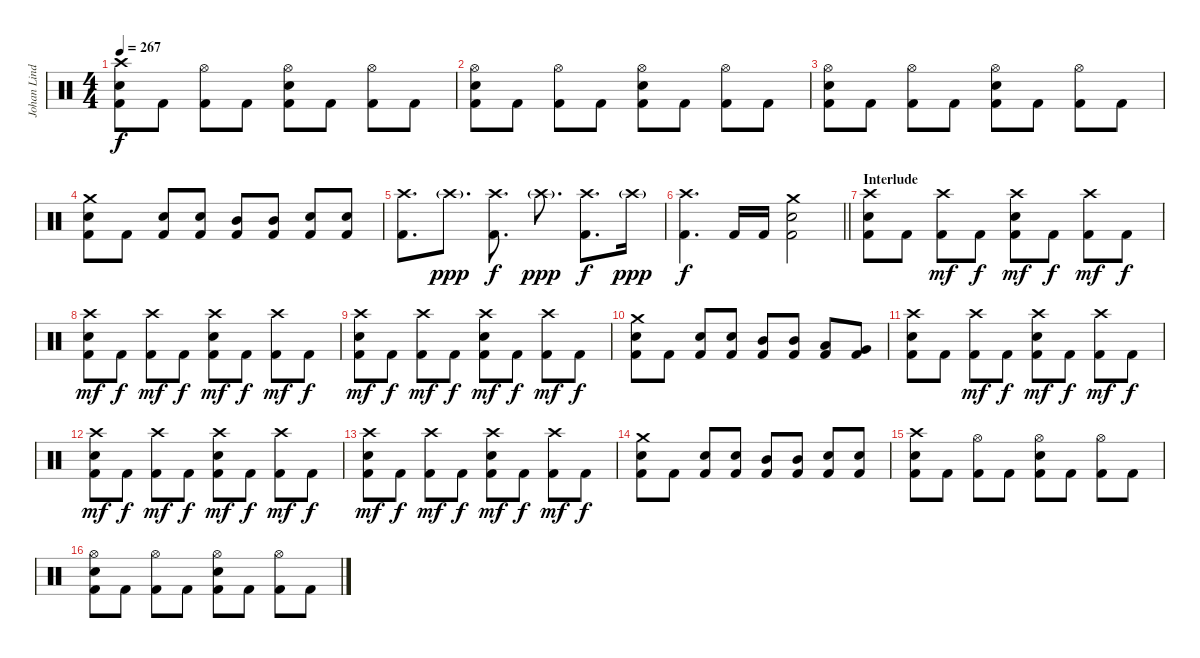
\track ("Johan Lindstrand" "Johan Lind") {instrument percussion}
\staff {score}
\articulation defaults
\ts (4 4)
\tempo 267
\clef neutral
\ks c
("Crash high (hit)" "Electric Snare (hit)" "Kick (hit) 2").8{dy f} "Kick (hit) 2".8 ("Hi-Hat (open)" "Kick (hit) 2").8 "Kick (hit) 2".8 ("Hi-Hat (open)" "Electric Snare (hit)" "Kick (hit) 2").8 "Kick (hit) 2".8 ("Hi-Hat (open)" "Kick (hit) 2").8 "Kick (hit) 2".8 |
("Hi-Hat (open)" "Electric Snare (hit)" "Kick (hit) 2").8 "Kick (hit) 2".8 ("Hi-Hat (open)" "Kick (hit) 2").8 "Kick (hit) 2".8 ("Hi-Hat (open)" "Electric Snare (hit)" "Kick (hit) 2").8 "Kick (hit) 2".8 ("Hi-Hat (open)" "Kick (hit) 2").8 "Kick (hit) 2".8 |
("Hi-Hat (open)" "Electric Snare (hit)" "Kick (hit) 2").8 "Kick (hit) 2".8 ("Hi-Hat (open)" "Kick (hit) 2").8 "Kick (hit) 2".8 ("Hi-Hat (open)" "Electric Snare (hit)" "Kick (hit) 2").8 "Kick (hit) 2".8 ("Hi-Hat (open)" "Kick (hit) 2").8 "Kick (hit) 2".8 |
("Crash medium (hit)" "Electric Snare (hit)" "Kick (hit) 2").8 "Kick (hit) 2".8 ("Electric Snare (hit)" "Kick (hit) 2").8 ("Electric Snare (hit)" "Kick (hit) 2").8 ("Mid Tom (hit)" "Kick (hit) 2").8 ("Mid Tom (hit)" "Kick (hit) 2").8 ("Electric Snare (hit)" "Kick (hit) 2").8 ("Electric Snare (hit)" "Kick (hit) 2").8 |
("Crash high (hit)" "Kick (hit) 2").8{d} "Crash high (hit)"{g}.8{d dy ppp} ("Crash high (hit)" "Kick (hit) 2").8{d dy f} "Crash high (hit)"{g}.8{d dy ppp} ("Crash high (hit)" "Kick (hit) 2").8{d dy f} "Crash high (hit)"{g}.16{dy ppp} |
\barLineRight lightlight
("Crash high (hit)" "Kick (hit) 2").4{d dy f} "Kick (hit) 2".16 "Kick (hit) 2".16 ("Crash medium (hit)" "Electric Snare (hit)" "Kick (hit) 2").2 |
\section ("" "Interlude")
("Crash high (hit)" "Electric Snare (hit)" "Kick (hit) 2").8 "Kick (hit) 2".8 ("Crash high (hit)" "Kick (hit) 2").8{dy mf} "Kick (hit) 2".8{dy f} ("Crash high (hit)" "Electric Snare (hit)" "Kick (hit) 2").8{dy mf} "Kick (hit) 2".8{dy f} ("Crash high (hit)" "Kick (hit) 2").8{dy mf} "Kick (hit) 2".8{dy f} |
("Crash high (hit)" "Electric Snare (hit)" "Kick (hit) 2").8{dy mf} "Kick (hit) 2".8{dy f} ("Crash high (hit)" "Kick (hit) 2").8{dy mf} "Kick (hit) 2".8{dy f} ("Crash high (hit)" "Electric Snare (hit)" "Kick (hit) 2").8{dy mf} "Kick (hit) 2".8{dy f} ("Crash high (hit)" "Kick (hit) 2").8{dy mf} "Kick (hit) 2".8{dy f} |
("Crash high (hit)" "Electric Snare (hit)" "Kick (hit) 2").8{dy mf} "Kick (hit) 2".8{dy f} ("Crash high (hit)" "Kick (hit) 2").8{dy mf} "Kick (hit) 2".8{dy f} ("Crash high (hit)" "Electric Snare (hit)" "Kick (hit) 2").8{dy mf} "Kick (hit) 2".8{dy f} ("Crash high (hit)" "Kick (hit) 2").8{dy mf} "Kick (hit) 2".8{dy f} |
("Crash medium (hit)" "Electric Snare (hit)" "Kick (hit) 2").8 "Kick (hit) 2".8 ("Electric Snare (hit)" "Kick (hit) 2").8 ("Electric Snare (hit)" "Kick (hit) 2").8 ("Mid Tom (hit)" "Kick (hit) 2").8 ("Mid Tom (hit)" "Kick (hit) 2").8 ("Low Tom (hit)" "Kick (hit) 2").8 ("Very Low Tom (hit)" "Kick (hit) 2").8 |
("Crash high (hit)" "Electric Snare (hit)" "Kick (hit) 2").8 "Kick (hit) 2".8 ("Crash high (hit)" "Kick (hit) 2").8{dy mf} "Kick (hit) 2".8{dy f} ("Crash high (hit)" "Electric Snare (hit)" "Kick (hit) 2").8{dy mf} "Kick (hit) 2".8{dy f} ("Crash high (hit)" "Kick (hit) 2").8{dy mf} "Kick (hit) 2".8{dy f} |
("Crash high (hit)" "Electric Snare (hit)" "Kick (hit) 2").8{dy mf} "Kick (hit) 2".8{dy f} ("Crash high (hit)" "Kick (hit) 2").8{dy mf} "Kick (hit) 2".8{dy f} ("Crash high (hit)" "Electric Snare (hit)" "Kick (hit) 2").8{dy mf} "Kick (hit) 2".8{dy f} ("Crash high (hit)" "Kick (hit) 2").8{dy mf} "Kick (hit) 2".8{dy f} |
("Crash high (hit)" "Electric Snare (hit)" "Kick (hit) 2").8{dy mf} "Kick (hit) 2".8{dy f} ("Crash high (hit)" "Kick (hit) 2").8{dy mf} "Kick (hit) 2".8{dy f} ("Crash high (hit)" "Electric Snare (hit)" "Kick (hit) 2").8{dy mf} "Kick (hit) 2".8{dy f} ("Crash high (hit)" "Kick (hit) 2").8{dy mf} "Kick (hit) 2".8{dy f} |
("Crash medium (hit)" "Electric Snare (hit)" "Kick (hit) 2").8 "Kick (hit) 2".8 ("Electric Snare (hit)" "Kick (hit) 2").8 ("Electric Snare (hit)" "Kick (hit) 2").8 ("Mid Tom (hit)" "Kick (hit) 2").8 ("Mid Tom (hit)" "Kick (hit) 2").8 ("Electric Snare (hit)" "Kick (hit) 2").8 ("Electric Snare (hit)" "Kick (hit) 2").8 |
("Crash high (hit)" "Electric Snare (hit)" "Kick (hit) 2").8 "Kick (hit) 2".8 ("Hi-Hat (open)" "Kick (hit) 2").8 "Kick (hit) 2".8 ("Hi-Hat (open)" "Electric Snare (hit)" "Kick (hit) 2").8 "Kick (hit) 2".8 ("Hi-Hat (open)" "Kick (hit) 2").8 "Kick (hit) 2".8 |
("Hi-Hat (open)" "Electric Snare (hit)" "Kick (hit) 2").8 "Kick (hit) 2".8 ("Hi-Hat (open)" "Kick (hit) 2").8 "Kick (hit) 2".8 ("Hi-Hat (open)" "Electric Snare (hit)" "Kick (hit) 2").8 "Kick (hit) 2".8 ("Hi-Hat (open)" "Kick (hit) 2").8 "Kick (hit) 2".8
